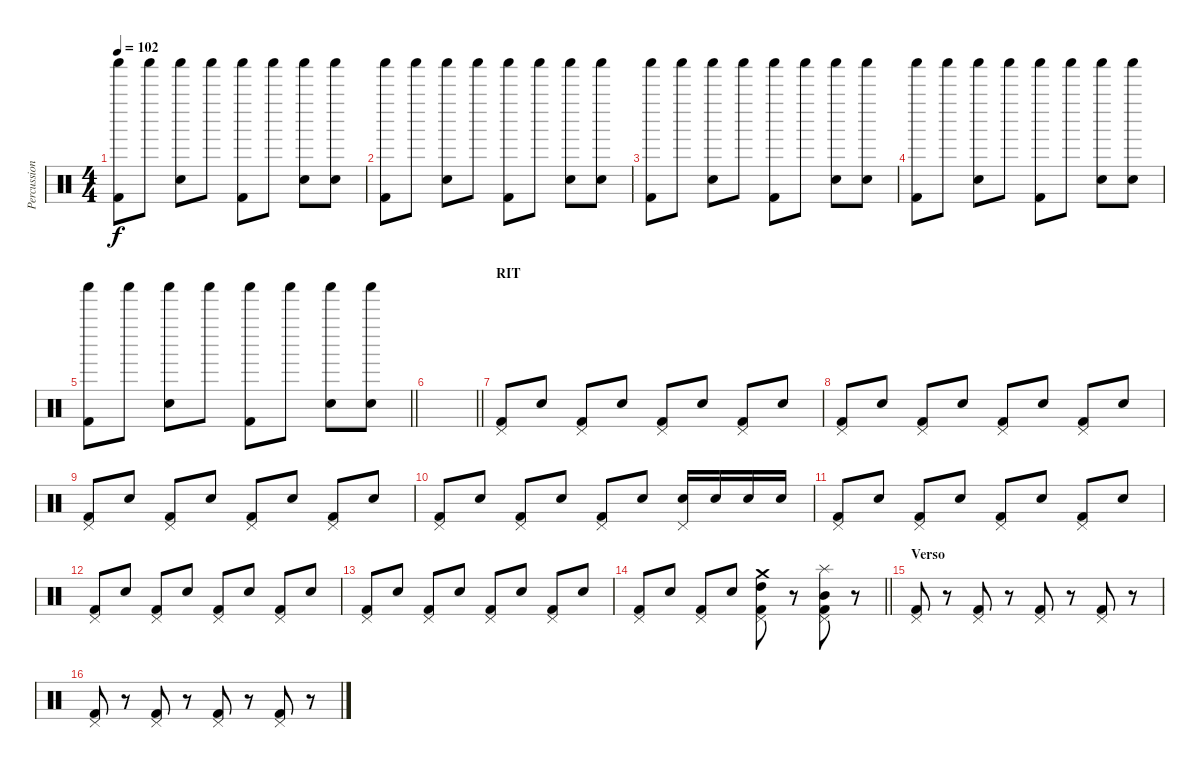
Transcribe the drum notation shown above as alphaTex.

\track ("Percussioni" "Percussion") {instrument percussion}
\staff {score}
\articulation defaults
\ts (4 4)
\tempo 102
\clef neutral
\ks c
("Kick (hit) 2" "Shaker (hit)").8{dy f} "Shaker (hit)".8 ("Snare (hit) 2" "Shaker (hit)").8 "Shaker (hit)".8 ("Kick (hit) 2" "Shaker (hit)").8 "Shaker (hit)".8 ("Snare (hit) 2" "Shaker (hit)").8 ("Snare (hit) 2" "Shaker (hit)").8 |
("Kick (hit) 2" "Shaker (hit)").8 "Shaker (hit)".8 ("Snare (hit) 2" "Shaker (hit)").8 "Shaker (hit)".8 ("Kick (hit) 2" "Shaker (hit)").8 "Shaker (hit)".8 ("Snare (hit) 2" "Shaker (hit)").8 ("Snare (hit) 2" "Shaker (hit)").8 |
("Kick (hit) 2" "Shaker (hit)").8 "Shaker (hit)".8 ("Snare (hit) 2" "Shaker (hit)").8 "Shaker (hit)".8 ("Kick (hit) 2" "Shaker (hit)").8 "Shaker (hit)".8 ("Snare (hit) 2" "Shaker (hit)").8 ("Snare (hit) 2" "Shaker (hit)").8 |
("Kick (hit) 2" "Shaker (hit)").8 "Shaker (hit)".8 ("Snare (hit) 2" "Shaker (hit)").8 "Shaker (hit)".8 ("Kick (hit) 2" "Shaker (hit)").8 "Shaker (hit)".8 ("Snare (hit) 2" "Shaker (hit)").8 ("Snare (hit) 2" "Shaker (hit)").8 |
\barLineRight lightlight
("Kick (hit) 2" "Shaker (hit)").8 "Shaker (hit)".8 ("Snare (hit) 2" "Shaker (hit)").8 "Shaker (hit)".8 ("Kick (hit) 2" "Shaker (hit)").8 "Shaker (hit)".8 ("Snare (hit) 2" "Shaker (hit)").8 ("Snare (hit) 2" "Shaker (hit)").8 |
\barLineRight lightlight
|
\section ("" "RIT")
("Pedal Hi-Hat (hit)" "Kick (hit) 2").8 "Snare (hit) 2".8 ("Pedal Hi-Hat (hit)" "Kick (hit) 2").8 "Snare (hit) 2".8 ("Pedal Hi-Hat (hit)" "Kick (hit) 2").8 "Snare (hit) 2".8 ("Pedal Hi-Hat (hit)" "Kick (hit) 2").8 "Snare (hit) 2".8 |
("Pedal Hi-Hat (hit)" "Kick (hit) 2").8 "Snare (hit) 2".8 ("Pedal Hi-Hat (hit)" "Kick (hit) 2").8 "Snare (hit) 2".8 ("Pedal Hi-Hat (hit)" "Kick (hit) 2").8 "Snare (hit) 2".8 ("Pedal Hi-Hat (hit)" "Kick (hit) 2").8 "Snare (hit) 2".8 |
("Pedal Hi-Hat (hit)" "Kick (hit) 2").8 "Snare (hit) 2".8 ("Pedal Hi-Hat (hit)" "Kick (hit) 2").8 "Snare (hit) 2".8 ("Pedal Hi-Hat (hit)" "Kick (hit) 2").8 "Snare (hit) 2".8 ("Pedal Hi-Hat (hit)" "Kick (hit) 2").8 "Snare (hit) 2".8 |
("Pedal Hi-Hat (hit)" "Kick (hit) 2").8 "Snare (hit) 2".8 ("Pedal Hi-Hat (hit)" "Kick (hit) 2").8 "Snare (hit) 2".8 ("Pedal Hi-Hat (hit)" "Kick (hit) 2").8 "Snare (hit) 2".8 ("Pedal Hi-Hat (hit)" "Snare (hit) 2").16 "Snare (hit) 2".16 "Snare (hit) 2".16 "Snare (hit) 2".16 |
("Pedal Hi-Hat (hit)" "Kick (hit) 2").8 "Snare (hit) 2".8 ("Pedal Hi-Hat (hit)" "Kick (hit) 2").8 "Snare (hit) 2".8 ("Pedal Hi-Hat (hit)" "Kick (hit) 2").8 "Snare (hit) 2".8 ("Pedal Hi-Hat (hit)" "Kick (hit) 2").8 "Snare (hit) 2".8 |
("Pedal Hi-Hat (hit)" "Kick (hit) 2").8 "Snare (hit) 2".8 ("Pedal Hi-Hat (hit)" "Kick (hit) 2").8 "Snare (hit) 2".8 ("Pedal Hi-Hat (hit)" "Kick (hit) 2").8 "Snare (hit) 2".8 ("Pedal Hi-Hat (hit)" "Kick (hit) 2").8 "Snare (hit) 2".8 |
("Pedal Hi-Hat (hit)" "Kick (hit) 2").8 "Snare (hit) 2".8 ("Pedal Hi-Hat (hit)" "Kick (hit) 2").8 "Snare (hit) 2".8 ("Pedal Hi-Hat (hit)" "Kick (hit) 2").8 "Snare (hit) 2".8 ("Pedal Hi-Hat (hit)" "Kick (hit) 2").8 "Snare (hit) 2".8 |
\barLineRight lightlight
("Pedal Hi-Hat (hit)" "Kick (hit) 2").8 "Snare (hit) 2".8 ("Pedal Hi-Hat (hit)" "Kick (hit) 2").8 "Snare (hit) 2".8 ("High Tom (hit)" "Crash medium (hit)" "Pedal Hi-Hat (hit)" "Kick (hit) 2").8 r.8 ("Mid Tom (hit)" "Splash (hit)" "Pedal Hi-Hat (hit)" "Kick (hit) 2").8 r.8 |
\section ("" "Verso")
("Kick (hit) 2" "Pedal Hi-Hat (hit)").8 r.8 ("Kick (hit) 2" "Pedal Hi-Hat (hit)").8 r.8 ("Kick (hit) 2" "Pedal Hi-Hat (hit)").8 r.8 ("Kick (hit) 2" "Pedal Hi-Hat (hit)").8 r.8 |
("Kick (hit) 2" "Pedal Hi-Hat (hit)").8 r.8 ("Kick (hit) 2" "Pedal Hi-Hat (hit)").8 r.8 ("Kick (hit) 2" "Pedal Hi-Hat (hit)").8 r.8 ("Kick (hit) 2" "Pedal Hi-Hat (hit)").8 r.8
